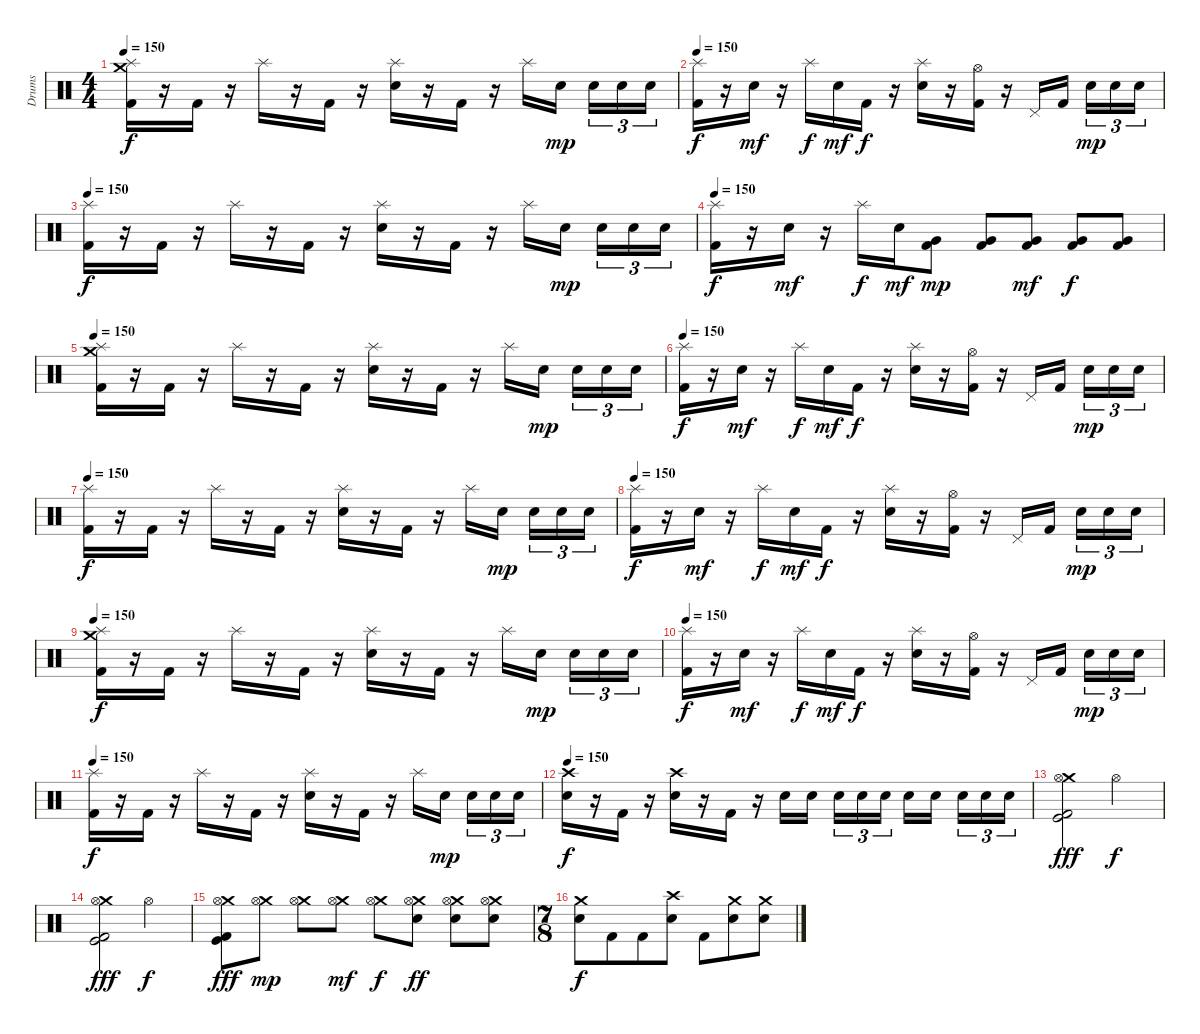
\track ("Drums" "Drums") {instrument percussion}
\staff {score}
\articulation defaults
\ts (4 4)
\tempo 150
\clef neutral
\ks c
("Splash (hit)" "Crash medium (hit)" "Kick (hit) 2").16{dy f} r.16 "Kick (hit) 2".16 r.16 "Splash (hit)".16 r.16 "Kick (hit) 2".16 r.16 ("Splash (hit)" "Electric Snare (hit)").16 r.16 "Kick (hit) 2".16 r.16 "Splash (hit)".16 "Electric Snare (hit)".16{dy mp} "Electric Snare (hit)".16{tu (3 2)} "Electric Snare (hit)".16{tu (3 2)} "Electric Snare (hit)".16{tu (3 2)} |
\tempo 150
("Splash (hit)" "Kick (hit) 2").16{dy f} r.16 "Electric Snare (hit)".16{dy mf} r.16 "Splash (hit)".16{dy f} "Electric Snare (hit)".16{dy mf} "Kick (hit) 2".16{dy f} r.16 ("Splash (hit)" "Electric Snare (hit)").16 r.16 ("Hi-Hat (open)" "Kick (hit) 2").16 r.16 "Pedal Hi-Hat (hit)".16 "Kick (hit) 2".16 "Electric Snare (hit)".16{tu (3 2) dy mp} "Electric Snare (hit)".16{tu (3 2)} "Electric Snare (hit)".16{tu (3 2)} |
\tempo 150
("Splash (hit)" "Kick (hit) 2").16{dy f} r.16 "Kick (hit) 2".16 r.16 "Splash (hit)".16 r.16 "Kick (hit) 2".16 r.16 ("Splash (hit)" "Electric Snare (hit)").16 r.16 "Kick (hit) 2".16 r.16 "Splash (hit)".16 "Electric Snare (hit)".16{dy mp} "Electric Snare (hit)".16{tu (3 2)} "Electric Snare (hit)".16{tu (3 2)} "Electric Snare (hit)".16{tu (3 2)} |
\tempo 150
("Splash (hit)" "Kick (hit) 2").16{dy f} r.16 "Electric Snare (hit)".16{dy mf} r.16 "Splash (hit)".16{dy f} "Electric Snare (hit)".16{dy mf} ("Very Low Tom (hit)" "Kick (hit) 2").8{dy mp} ("Very Low Tom (hit)" "Kick (hit) 2").8 ("Very Low Tom (hit)" "Kick (hit) 2").8{dy mf} ("Very Low Tom (hit)" "Kick (hit) 2").8{dy f} ("Very Low Tom (hit)" "Kick (hit) 2").8 |
\tempo 150
("Splash (hit)" "Crash medium (hit)" "Kick (hit) 2").16 r.16 "Kick (hit) 2".16 r.16 "Splash (hit)".16 r.16 "Kick (hit) 2".16 r.16 ("Splash (hit)" "Electric Snare (hit)").16 r.16 "Kick (hit) 2".16 r.16 "Splash (hit)".16 "Electric Snare (hit)".16{dy mp} "Electric Snare (hit)".16{tu (3 2)} "Electric Snare (hit)".16{tu (3 2)} "Electric Snare (hit)".16{tu (3 2)} |
\tempo 150
("Splash (hit)" "Kick (hit) 2").16{dy f} r.16 "Electric Snare (hit)".16{dy mf} r.16 "Splash (hit)".16{dy f} "Electric Snare (hit)".16{dy mf} "Kick (hit) 2".16{dy f} r.16 ("Splash (hit)" "Electric Snare (hit)").16 r.16 ("Hi-Hat (open)" "Kick (hit) 2").16 r.16 "Pedal Hi-Hat (hit)".16 "Kick (hit) 2".16 "Electric Snare (hit)".16{tu (3 2) dy mp} "Electric Snare (hit)".16{tu (3 2)} "Electric Snare (hit)".16{tu (3 2)} |
\tempo 150
("Splash (hit)" "Kick (hit) 2").16{dy f} r.16 "Kick (hit) 2".16 r.16 "Splash (hit)".16 r.16 "Kick (hit) 2".16 r.16 ("Splash (hit)" "Electric Snare (hit)").16 r.16 "Kick (hit) 2".16 r.16 "Splash (hit)".16 "Electric Snare (hit)".16{dy mp} "Electric Snare (hit)".16{tu (3 2)} "Electric Snare (hit)".16{tu (3 2)} "Electric Snare (hit)".16{tu (3 2)} |
\tempo 150
("Splash (hit)" "Kick (hit) 2").16{dy f} r.16 "Electric Snare (hit)".16{dy mf} r.16 "Splash (hit)".16{dy f} "Electric Snare (hit)".16{dy mf} "Kick (hit) 2".16{dy f} r.16 ("Splash (hit)" "Electric Snare (hit)").16 r.16 ("Hi-Hat (open)" "Kick (hit) 2").16 r.16 "Pedal Hi-Hat (hit)".16 "Kick (hit) 2".16 "Electric Snare (hit)".16{tu (3 2) dy mp} "Electric Snare (hit)".16{tu (3 2)} "Electric Snare (hit)".16{tu (3 2)} |
\tempo 150
("Splash (hit)" "Crash medium (hit)" "Kick (hit) 2").16{dy f} r.16 "Kick (hit) 2".16 r.16 "Splash (hit)".16 r.16 "Kick (hit) 2".16 r.16 ("Splash (hit)" "Electric Snare (hit)").16 r.16 "Kick (hit) 2".16 r.16 "Splash (hit)".16 "Electric Snare (hit)".16{dy mp} "Electric Snare (hit)".16{tu (3 2)} "Electric Snare (hit)".16{tu (3 2)} "Electric Snare (hit)".16{tu (3 2)} |
\tempo 150
("Splash (hit)" "Kick (hit) 2").16{dy f} r.16 "Electric Snare (hit)".16{dy mf} r.16 "Splash (hit)".16{dy f} "Electric Snare (hit)".16{dy mf} "Kick (hit) 2".16{dy f} r.16 ("Splash (hit)" "Electric Snare (hit)").16 r.16 ("Hi-Hat (open)" "Kick (hit) 2").16 r.16 "Pedal Hi-Hat (hit)".16 "Kick (hit) 2".16 "Electric Snare (hit)".16{tu (3 2) dy mp} "Electric Snare (hit)".16{tu (3 2)} "Electric Snare (hit)".16{tu (3 2)} |
\tempo 150
("Splash (hit)" "Kick (hit) 2").16{dy f} r.16 "Kick (hit) 2".16 r.16 "Splash (hit)".16 r.16 "Kick (hit) 2".16 r.16 ("Splash (hit)" "Electric Snare (hit)").16 r.16 "Kick (hit) 2".16 r.16 "Splash (hit)".16 "Electric Snare (hit)".16{dy mp} "Electric Snare (hit)".16{tu (3 2)} "Electric Snare (hit)".16{tu (3 2)} "Electric Snare (hit)".16{tu (3 2)} |
\tempo 150
("Crash high (hit)" "Electric Snare (hit)").16{dy f} r.16 "Kick (hit) 2".16 r.16 ("Crash high (hit)" "Electric Snare (hit)").16 r.16 "Kick (hit) 2".16 r.16 "Electric Snare (hit)".16 "Electric Snare (hit)".16 "Electric Snare (hit)".16{tu (3 2)} "Electric Snare (hit)".16{tu (3 2)} "Electric Snare (hit)".16{tu (3 2)} "Electric Snare (hit)".16 "Electric Snare (hit)".16 "Electric Snare (hit)".16{tu (3 2)} "Electric Snare (hit)".16{tu (3 2)} "Electric Snare (hit)".16{tu (3 2)} |
("Crash medium (hit)" "Hi-Hat (open)" "Kick (hit)" "Kick (hit) 2").2{dy fff} "Hi-Hat (open)".2{dy f} |
("Crash medium (hit)" "Hi-Hat (open)" "Kick (hit)" "Kick (hit) 2").2{dy fff} "Hi-Hat (open)".2{dy f} |
("Crash medium (hit)" "Hi-Hat (open)" "Kick (hit)" "Kick (hit) 2").8{dy fff} ("Crash medium (hit)" "Hi-Hat (open)").8{dy mp} ("Crash medium (hit)" "Hi-Hat (open)").8 ("Crash medium (hit)" "Hi-Hat (open)").8{dy mf} ("Crash medium (hit)" "Hi-Hat (open)").8{dy f} ("Crash medium (hit)" "Hi-Hat (open)" "Electric Snare (hit)").8{dy ff} ("Crash medium (hit)" "Hi-Hat (open)" "Electric Snare (hit)").8 ("Crash medium (hit)" "Hi-Hat (open)" "Electric Snare (hit)").8 |
\ts (7 8)
("Crash medium (hit)" "Electric Snare (hit)").8{dy f} "Kick (hit) 2".8 "Kick (hit) 2".8 ("Crash high (hit)" "Electric Snare (hit)").8 "Kick (hit) 2".8 ("Crash medium (hit)" "Electric Snare (hit)").8 ("Crash medium (hit)" "Electric Snare (hit)").8
